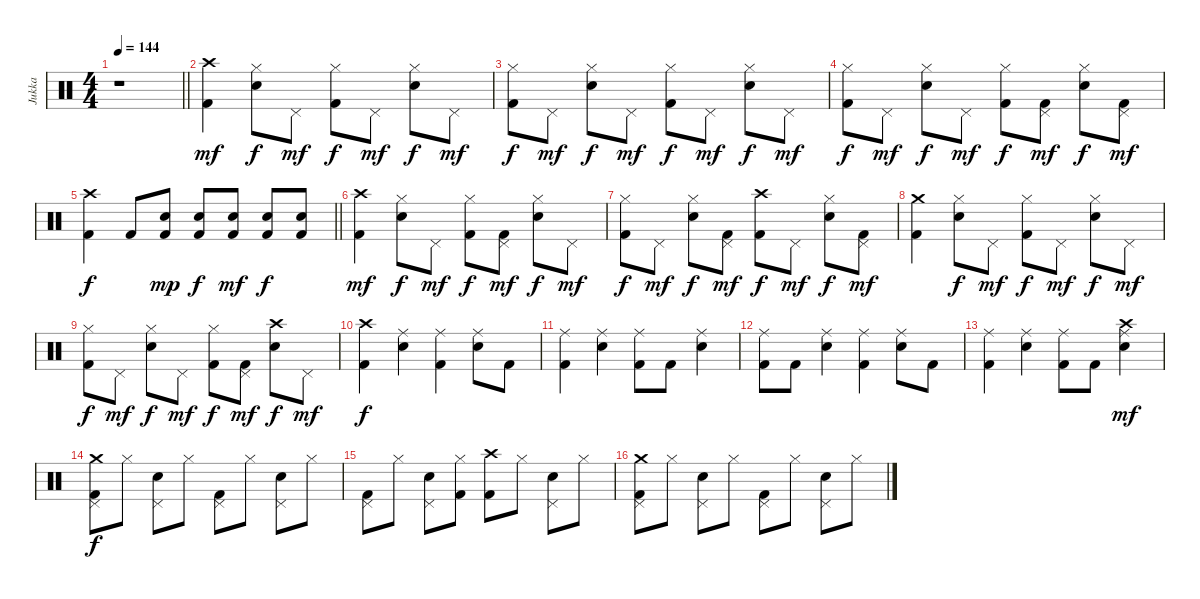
\track ("Jukka" "Jukka") {instrument percussion}
\staff {score}
\articulation defaults
\ts (4 4)
\tempo 144
\clef neutral
\barLineRight lightlight
\ks c
r.1{dy mf} |
("Crash high (hit)" "Kick (hit) 2").4 ("Hi-Hat (closed)" "Electric Snare (hit)").8{dy f} "Pedal Hi-Hat (hit)".8{dy mf} ("Hi-Hat (closed)" "Kick (hit) 2").8{dy f} "Pedal Hi-Hat (hit)".8{dy mf} ("Hi-Hat (closed)" "Electric Snare (hit)").8{dy f} "Pedal Hi-Hat (hit)".8{dy mf} |
("Hi-Hat (closed)" "Kick (hit) 2").8{dy f} "Pedal Hi-Hat (hit)".8{dy mf} ("Hi-Hat (closed)" "Electric Snare (hit)").8{dy f} "Pedal Hi-Hat (hit)".8{dy mf} ("Hi-Hat (closed)" "Kick (hit) 2").8{dy f} "Pedal Hi-Hat (hit)".8{dy mf} ("Hi-Hat (closed)" "Electric Snare (hit)").8{dy f} "Pedal Hi-Hat (hit)".8{dy mf} |
("Hi-Hat (closed)" "Kick (hit) 2").8{dy f} "Pedal Hi-Hat (hit)".8{dy mf} ("Hi-Hat (closed)" "Electric Snare (hit)").8{dy f} "Pedal Hi-Hat (hit)".8{dy mf} ("Hi-Hat (closed)" "Kick (hit) 2").8{dy f} ("Pedal Hi-Hat (hit)" "Kick (hit) 2").8{dy mf} ("Hi-Hat (closed)" "Electric Snare (hit)").8{dy f} ("Pedal Hi-Hat (hit)" "Kick (hit) 2").8{dy mf} |
\barLineRight lightlight
("Crash high (hit)" "Kick (hit) 2").4{dy f} "Kick (hit) 2".8 ("Snare (hit) 2" "Kick (hit) 2").8{dy mp} ("Snare (hit) 2" "Kick (hit) 2").8{dy f} ("Snare (hit) 2" "Kick (hit) 2").8{dy mf} ("Snare (hit) 2" "Kick (hit) 2").8{dy f} ("Snare (hit) 2" "Kick (hit) 2").8 |
("Crash high (hit)" "Kick (hit) 2").4{dy mf} ("Hi-Hat (closed)" "Electric Snare (hit)").8{dy f} "Pedal Hi-Hat (hit)".8{dy mf} ("Hi-Hat (closed)" "Kick (hit) 2").8{dy f} ("Pedal Hi-Hat (hit)" "Kick (hit) 2").8{dy mf} ("Hi-Hat (closed)" "Electric Snare (hit)").8{dy f} "Pedal Hi-Hat (hit)".8{dy mf} |
("Hi-Hat (closed)" "Kick (hit) 2").8{dy f} "Pedal Hi-Hat (hit)".8{dy mf} ("Hi-Hat (closed)" "Electric Snare (hit)").8{dy f} ("Pedal Hi-Hat (hit)" "Kick (hit) 2").8{dy mf} ("Crash high (hit)" "Kick (hit) 2").8{dy f} "Pedal Hi-Hat (hit)".8{dy mf} ("Hi-Hat (closed)" "Electric Snare (hit)").8{dy f} ("Pedal Hi-Hat (hit)" "Kick (hit) 2").8{dy mf} |
("Crash medium (hit)" "Kick (hit) 2").4 ("Hi-Hat (closed)" "Electric Snare (hit)").8{dy f} "Pedal Hi-Hat (hit)".8{dy mf} ("Hi-Hat (closed)" "Kick (hit) 2").8{dy f} "Pedal Hi-Hat (hit)".8{dy mf} ("Hi-Hat (closed)" "Electric Snare (hit)").8{dy f} "Pedal Hi-Hat (hit)".8{dy mf} |
("Hi-Hat (closed)" "Kick (hit) 2").8{dy f} "Pedal Hi-Hat (hit)".8{dy mf} ("Hi-Hat (closed)" "Electric Snare (hit)").8{dy f} "Pedal Hi-Hat (hit)".8{dy mf} ("Hi-Hat (closed)" "Kick (hit) 2").8{dy f} ("Pedal Hi-Hat (hit)" "Kick (hit) 2").8{dy mf} ("Crash high (hit)" "Electric Snare (hit)").8{dy f} "Pedal Hi-Hat (hit)".8{dy mf} |
("Crash high (hit)" "Kick (hit) 2").4{dy f} ("Ride (middle)" "Electric Snare (hit)").4 ("Ride (middle)" "Kick (hit) 2").4 ("Ride (middle)" "Electric Snare (hit)").8 "Kick (hit) 2".8 |
("Ride (middle)" "Kick (hit) 2").4 ("Ride (middle)" "Electric Snare (hit)").4 ("Ride (middle)" "Kick (hit) 2").8 "Kick (hit) 2".8 ("Ride (middle)" "Electric Snare (hit)").4 |
("Ride (middle)" "Kick (hit) 2").8 "Kick (hit) 2".8 ("Ride (middle)" "Electric Snare (hit)").4 ("Ride (middle)" "Kick (hit) 2").4 ("Ride (middle)" "Electric Snare (hit)").8 "Kick (hit) 2".8 |
("Ride (middle)" "Kick (hit) 2").4 ("Ride (middle)" "Electric Snare (hit)").4 ("Ride (middle)" "Kick (hit) 2").8 "Kick (hit) 2".8 ("Crash high (hit)" "Ride (middle)" "Electric Snare (hit)").4{dy mf} |
("Crash medium (hit)" "Pedal Hi-Hat (hit)" "Kick (hit) 2").8{dy f} "Hi-Hat (closed)".8 ("Pedal Hi-Hat (hit)" "Electric Snare (hit)").8 "Hi-Hat (closed)".8 ("Pedal Hi-Hat (hit)" "Kick (hit) 2").8 "Hi-Hat (closed)".8 ("Pedal Hi-Hat (hit)" "Electric Snare (hit)").8 "Hi-Hat (closed)".8 |
("Pedal Hi-Hat (hit)" "Kick (hit) 2").8 "Hi-Hat (closed)".8 ("Pedal Hi-Hat (hit)" "Electric Snare (hit)").8 ("Hi-Hat (closed)" "Kick (hit) 2").8 ("Crash high (hit)" "Kick (hit) 2").8 "Hi-Hat (closed)".8 ("Pedal Hi-Hat (hit)" "Electric Snare (hit)").8 "Hi-Hat (closed)".8 |
("Crash medium (hit)" "Pedal Hi-Hat (hit)" "Kick (hit) 2").8 "Hi-Hat (closed)".8 ("Pedal Hi-Hat (hit)" "Electric Snare (hit)").8 "Hi-Hat (closed)".8 ("Pedal Hi-Hat (hit)" "Kick (hit) 2").8 "Hi-Hat (closed)".8 ("Pedal Hi-Hat (hit)" "Electric Snare (hit)").8 "Hi-Hat (closed)".8
